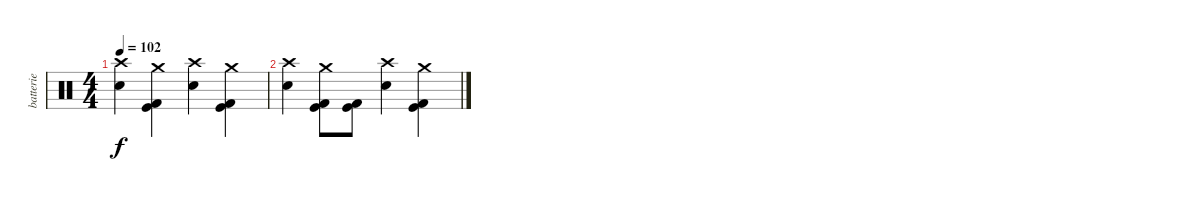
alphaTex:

\track ("batterie" "batterie") {instrument percussion}
\staff {score}
\articulation defaults
\ts (4 4)
\tempo 102
\clef neutral
\ks c
("Snare (hit) 2" "Crash high (hit)").4{dy f} ("Crash medium (hit)" "Kick (hit) 2" "Kick (hit)").4 ("Snare (hit) 2" "Crash high (hit)").4 ("Crash medium (hit)" "Kick (hit)" "Kick (hit) 2").4 |
("Snare (hit) 2" "Crash high (hit)").4 ("Crash medium (hit)" "Kick (hit) 2" "Kick (hit)").8 ("Kick (hit) 2" "Kick (hit)").8 ("Snare (hit) 2" "Crash high (hit)").4 ("Crash medium (hit)" "Kick (hit)" "Kick (hit) 2").4
